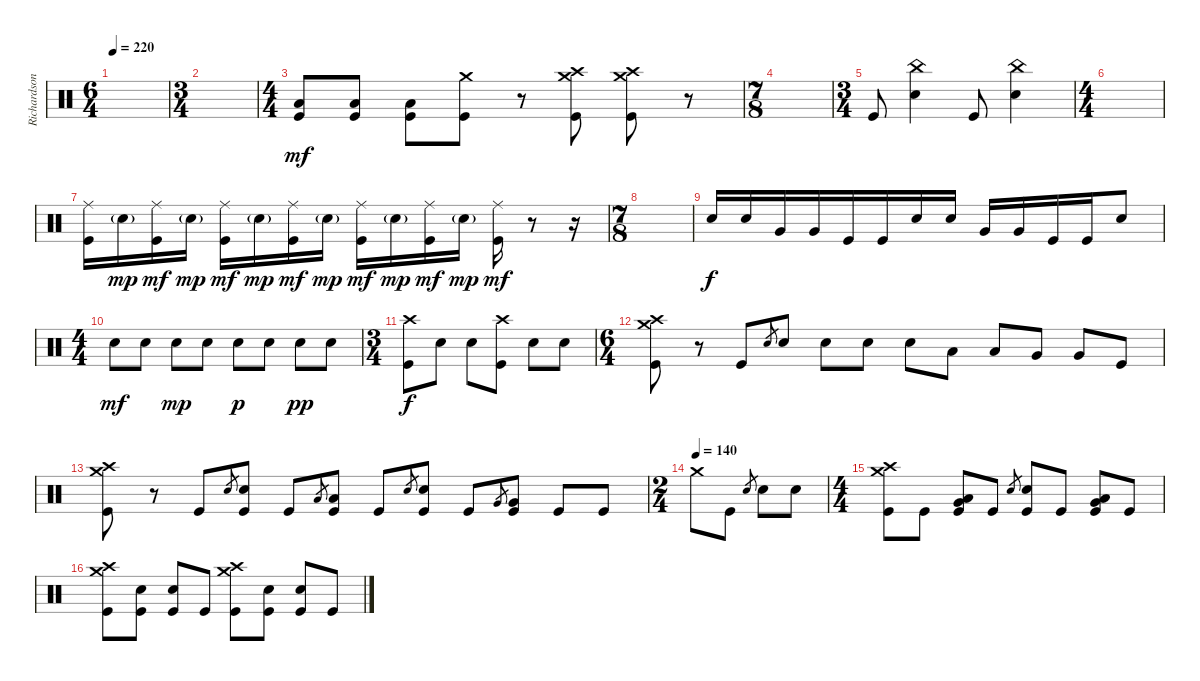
\track ("Richardson" "Richardson") {instrument percussion}
\staff {score}
\articulation defaults
\ts (6 4)
\tempo 220
\clef neutral
\ks c
|
\ts (3 4)
|
\ts (4 4)
("Low Tom (hit)" "Kick (hit)").8{dy mf} ("Low Tom (hit)" "Kick (hit)").8 ("Low Tom (hit)" "Kick (hit)").8 ("Crash medium (hit)" "Kick (hit)").8 r.8 ("Crash medium (hit)" "Crash high (hit)" "Kick (hit)").8 ("Crash medium (hit)" "Crash high (hit)" "Kick (hit)").8 r.8 |
\ts (7 8)
|
\ts (3 4)
"Kick (hit)".8 ("China (hit)" "Electric Snare (hit)").4 "Kick (hit)".8 ("China (hit)" "Electric Snare (hit)").4 |
\ts (4 4)
|
("Ride (middle)" "Kick (hit)").16 "Electric Snare (hit)"{g}.16{dy mp} ("Ride (middle)" "Kick (hit)").16{dy mf} "Electric Snare (hit)"{g}.16{dy mp} ("Ride (middle)" "Kick (hit)").16{dy mf} "Electric Snare (hit)"{g}.16{dy mp} ("Ride (middle)" "Kick (hit)").16{dy mf} "Electric Snare (hit)"{g}.16{dy mp} ("Ride (middle)" "Kick (hit)").16{dy mf} "Electric Snare (hit)"{g}.16{dy mp} ("Ride (middle)" "Kick (hit)").16{dy mf} "Electric Snare (hit)"{g}.16{dy mp} ("Ride (middle)" "Kick (hit)").16{dy mf} r.8 r.16 |
\ts (7 8)
|
"Electric Snare (hit)".16{dy f} "Electric Snare (hit)".16 "Very Low Tom (hit)".16 "Very Low Tom (hit)".16 "Kick (hit)".16 "Kick (hit)".16 "Electric Snare (hit)".16 "Electric Snare (hit)".16 "Very Low Tom (hit)".16 "Very Low Tom (hit)".16 "Kick (hit)".16 "Kick (hit)".16 "Electric Snare (hit)".8 |
\ts (4 4)
"Electric Snare (hit)".8{dy mf balance 16} "Electric Snare (hit)".8{balance 0} "Electric Snare (hit)".8{dy mp balance 16} "Electric Snare (hit)".8{balance 0} "Electric Snare (hit)".8{dy p balance 16} "Electric Snare (hit)".8{balance 0} "Electric Snare (hit)".8{dy pp balance 16} "Electric Snare (hit)".8{balance 0} |
\ts (3 4)
("Crash high (hit)" "Kick (hit)").8{dy f balance 8} "Electric Snare (hit)".8 "Electric Snare (hit)".8 ("Crash high (hit)" "Kick (hit)").8 "Electric Snare (hit)".8 "Electric Snare (hit)".8 |
\ts (6 4)
("Crash medium (hit)" "Crash high (hit)" "Kick (hit)").8 r.8 "Kick (hit)".8 "Electric Snare (hit)".8{gr} "Electric Snare (hit)".8 "Electric Snare (hit)".8 "Electric Snare (hit)".8 "Electric Snare (hit)".8 "Low Tom (hit)".8 "Low Tom (hit)".8 "Very Low Tom (hit)".8 "Very Low Tom (hit)".8 "Kick (hit)".8 |
("Crash medium (hit)" "Crash high (hit)" "Kick (hit)").8 r.8 "Kick (hit)".8 "Electric Snare (hit)".8{gr} ("Electric Snare (hit)" "Kick (hit)").8 "Kick (hit)".8 "Low Tom (hit)".8{gr} ("Low Tom (hit)" "Kick (hit)").8 "Kick (hit)".8 "Electric Snare (hit)".8{gr} ("Electric Snare (hit)" "Kick (hit)").8 "Kick (hit)".8 "Very Low Tom (hit)".8{gr} ("Very Low Tom (hit)" "Kick (hit)").8 "Kick (hit)".8 "Kick (hit)".8 |
\ts (2 4)
\tempo (140)
"Crash medium (hit)".8 "Kick (hit)".8 "Electric Snare (hit)".8{gr} "Electric Snare (hit)".8 "Electric Snare (hit)".8 |
\ts (4 4)
("Crash medium (hit)" "Crash high (hit)" "Kick (hit)").8 "Kick (hit)".8 ("Low Tom (hit)" "Very Low Tom (hit)" "Kick (hit)").8 "Kick (hit)".8 "Electric Snare (hit)".8{gr} ("Electric Snare (hit)" "Kick (hit)").8 "Kick (hit)".8 ("Low Tom (hit)" "Very Low Tom (hit)" "Kick (hit)").8 "Kick (hit)".8 |
("Crash medium (hit)" "Crash high (hit)" "Kick (hit)").8 ("Electric Snare (hit)" "Kick (hit)").8 ("Electric Snare (hit)" "Kick (hit)").8 "Kick (hit)".8 ("Crash medium (hit)" "Crash high (hit)" "Kick (hit)").8 ("Electric Snare (hit)" "Kick (hit)").8 ("Electric Snare (hit)" "Kick (hit)").8 "Kick (hit)".8
